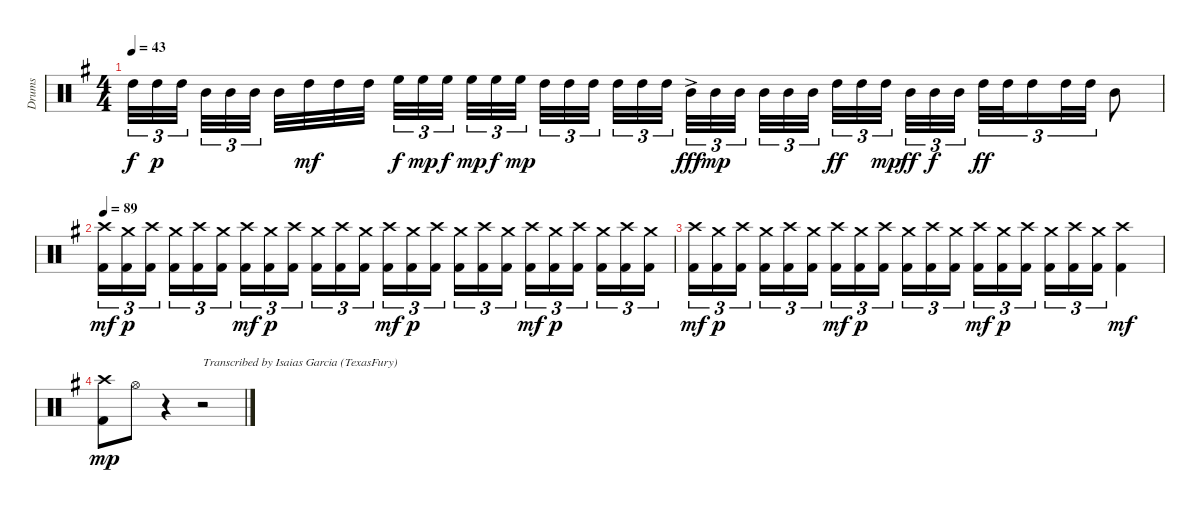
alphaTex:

\track ("Drums" "Drums") {instrument percussion}
\staff {score}
\articulation defaults
\ts (4 4)
\tempo 43
\clef neutral
\ks g "High Tom (hit)".32{tu (3 2) dy f} "High Tom (hit)".32{tu (3 2) dy p} "High Tom (hit)".32{tu (3 2) beam splitsecondary} "Mid Tom (hit)".32{tu (3 2)} "Mid Tom (hit)".32{tu (3 2)} "Mid Tom (hit)".32{tu (3 2) beam splitsecondary} "Mid Tom (hit)".32 "High Tom (hit)".32{dy mf} "High Tom (hit)".32 "High Tom (hit)".32 "High Floor Tom (hit)".32{tu (3 2) dy f} "High Floor Tom (hit)".32{tu (3 2) dy mp} "High Floor Tom (hit)".32{tu (3 2) dy f beam splitsecondary} "High Floor Tom (hit)".32{tu (3 2) dy mp} "High Floor Tom (hit)".32{tu (3 2) dy f} "High Floor Tom (hit)".32{tu (3 2) dy mp beam splitsecondary} "High Tom (hit)".32{tu (3 2)} "High Tom (hit)".32{tu (3 2)} "High Tom (hit)".32{tu (3 2) beam splitsecondary} "High Tom (hit)".32{tu (3 2)} "High Tom (hit)".32{tu (3 2)} "High Tom (hit)".32{tu (3 2)} "Mid Tom (hit)"{ac}.32{tu (3 2) dy fff} "Mid Tom (hit)".32{tu (3 2) dy mp} "Mid Tom (hit)".32{tu (3 2) beam splitsecondary} "Mid Tom (hit)".32{tu (3 2)} "Mid Tom (hit)".32{tu (3 2)} "Mid Tom (hit)".32{tu (3 2) beam splitsecondary} "High Tom (hit)".32{tu (3 2) dy ff} "High Tom (hit)".32{tu (3 2)} "High Tom (hit)".32{tu (3 2) dy mp beam splitsecondary} "Mid Tom (hit)".32{tu (3 2) dy ff} "Mid Tom (hit)".32{tu (3 2) dy f} "Mid Tom (hit)".32{tu (3 2)} "High Tom (hit)".32{tu (3 2) dy ff} "High Tom (hit)".32{tu (3 2)} "High Tom (hit)".16{tu (3 2)} "High Tom (hit)".32{tu (3 2)} "High Tom (hit)".32{tu (3 2)} "Mid Tom (hit)".8
|
\tempo 89
("Crash high (hit)" "Kick (hit) 2").16{tu (3 2) dy mf} ("Kick (hit) 2" "Crash medium (hit)").16{tu (3 2) dy p} ("Kick (hit) 2" "Crash high (hit)").16{tu (3 2) beam splitsecondary} ("Kick (hit) 2" "Crash medium (hit)").16{tu (3 2)} ("Kick (hit) 2" "Crash high (hit)").16{tu (3 2)} ("Kick (hit) 2" "Crash medium (hit)").16{tu (3 2)} ("Crash high (hit)" "Kick (hit) 2").16{tu (3 2) dy mf} ("Kick (hit) 2" "Crash medium (hit)").16{tu (3 2) dy p} ("Kick (hit) 2" "Crash high (hit)").16{tu (3 2) beam splitsecondary} ("Kick (hit) 2" "Crash medium (hit)").16{tu (3 2)} ("Kick (hit) 2" "Crash high (hit)").16{tu (3 2)} ("Kick (hit) 2" "Crash medium (hit)").16{tu (3 2)} ("Crash high (hit)" "Kick (hit) 2").16{tu (3 2) dy mf} ("Kick (hit) 2" "Crash medium (hit)").16{tu (3 2) dy p} ("Kick (hit) 2" "Crash high (hit)").16{tu (3 2) beam splitsecondary} ("Kick (hit) 2" "Crash medium (hit)").16{tu (3 2)} ("Kick (hit) 2" "Crash high (hit)").16{tu (3 2)} ("Kick (hit) 2" "Crash medium (hit)").16{tu (3 2)} ("Crash high (hit)" "Kick (hit) 2").16{tu (3 2) dy mf} ("Kick (hit) 2" "Crash medium (hit)").16{tu (3 2) dy p} ("Kick (hit) 2" "Crash high (hit)").16{tu (3 2) beam splitsecondary} ("Kick (hit) 2" "Crash medium (hit)").16{tu (3 2)} ("Kick (hit) 2" "Crash high (hit)").16{tu (3 2)} ("Kick (hit) 2" "Crash medium (hit)").16{tu (3 2)} |
("Crash high (hit)" "Kick (hit) 2").16{tu (3 2) dy mf} ("Kick (hit) 2" "Crash medium (hit)").16{tu (3 2) dy p} ("Kick (hit) 2" "Crash high (hit)").16{tu (3 2) beam splitsecondary} ("Kick (hit) 2" "Crash medium (hit)").16{tu (3 2)} ("Kick (hit) 2" "Crash high (hit)").16{tu (3 2)} ("Kick (hit) 2" "Crash medium (hit)").16{tu (3 2)} ("Crash high (hit)" "Kick (hit) 2").16{tu (3 2) dy mf} ("Kick (hit) 2" "Crash medium (hit)").16{tu (3 2) dy p} ("Kick (hit) 2" "Crash high (hit)").16{tu (3 2) beam splitsecondary} ("Kick (hit) 2" "Crash medium (hit)").16{tu (3 2)} ("Kick (hit) 2" "Crash high (hit)").16{tu (3 2)} ("Kick (hit) 2" "Crash medium (hit)").16{tu (3 2)} ("Crash high (hit)" "Kick (hit) 2").16{tu (3 2) dy mf} ("Kick (hit) 2" "Crash medium (hit)").16{tu (3 2) dy p} ("Kick (hit) 2" "Crash high (hit)").16{tu (3 2) beam splitsecondary} ("Kick (hit) 2" "Crash medium (hit)").16{tu (3 2)} ("Kick (hit) 2" "Crash high (hit)").16{tu (3 2)} ("Kick (hit) 2" "Crash medium (hit)").16{tu (3 2)} ("Crash high (hit)" "Kick (hit) 2").4{dy mf} |
("Kick (hit) 2" "Crash high (hit)").8{dy mp volume 0} "Hi-Hat (open)".8 r.4 r.2{txt "Transcribed by Isaias Garcia (TexasFury)"}
